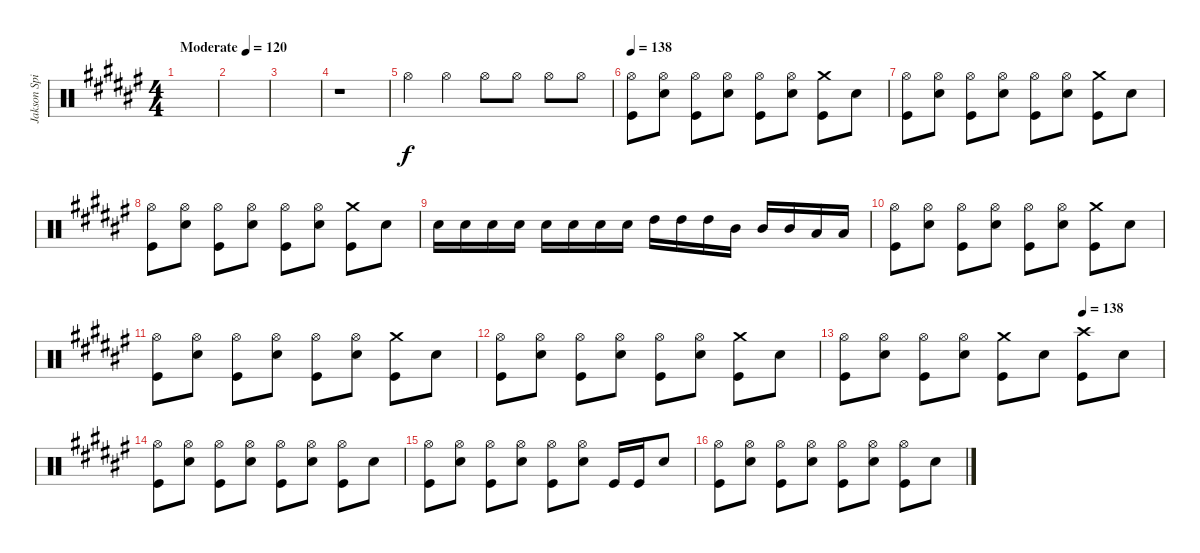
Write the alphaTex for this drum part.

\track ("Jakson Spires" "Jakson Spi") {instrument percussion}
\staff {score}
\articulation defaults
\ts (4 4)
\tempo (120 "Moderate")
\clef neutral
\ks f#
|
|
|
r.1 |
"Hi-Hat (open)".4 "Hi-Hat (open)".4 "Hi-Hat (open)".8 "Hi-Hat (open)".8 "Hi-Hat (open)".8 "Hi-Hat (open)".8 |
\tempo 138
("Hi-Hat (open)" "Kick (hit)").8 ("Hi-Hat (open)" "Snare (hit) 2").8 ("Hi-Hat (open)" "Kick (hit)").8 ("Hi-Hat (open)" "Snare (hit) 2").8 ("Hi-Hat (open)" "Kick (hit)").8 ("Hi-Hat (open)" "Snare (hit) 2").8 ("Crash medium (hit)" "Kick (hit)").8 "Snare (hit) 2".8 |
("Hi-Hat (open)" "Kick (hit)").8 ("Hi-Hat (open)" "Snare (hit) 2").8 ("Hi-Hat (open)" "Kick (hit)").8 ("Hi-Hat (open)" "Snare (hit) 2").8 ("Hi-Hat (open)" "Kick (hit)").8 ("Hi-Hat (open)" "Snare (hit) 2").8 ("Crash medium (hit)" "Kick (hit)").8 "Snare (hit) 2".8 |
("Hi-Hat (open)" "Kick (hit)").8 ("Hi-Hat (open)" "Snare (hit) 2").8 ("Hi-Hat (open)" "Kick (hit)").8 ("Hi-Hat (open)" "Snare (hit) 2").8 ("Hi-Hat (open)" "Kick (hit)").8 ("Hi-Hat (open)" "Snare (hit) 2").8 ("Crash medium (hit)" "Kick (hit)").8 "Snare (hit) 2".8 |
"Snare (hit) 2".16 "Snare (hit) 2".16 "Snare (hit) 2".16 "Snare (hit) 2".16 "Snare (hit) 2".16 "Snare (hit) 2".16 "Snare (hit) 2".16 "Snare (hit) 2".16 "High Tom (hit)".16 "High Tom (hit)".16 "High Tom (hit)".16 "Mid Tom (hit)".16 "Mid Tom (hit)".16 "Mid Tom (hit)".16 "Low Tom (hit)".16 "Low Tom (hit)".16 |
("Hi-Hat (open)" "Kick (hit)").8 ("Hi-Hat (open)" "Snare (hit) 2").8 ("Hi-Hat (open)" "Kick (hit)").8 ("Hi-Hat (open)" "Snare (hit) 2").8 ("Hi-Hat (open)" "Kick (hit)").8 ("Hi-Hat (open)" "Snare (hit) 2").8 ("Crash medium (hit)" "Kick (hit)").8 "Snare (hit) 2".8 |
("Hi-Hat (open)" "Kick (hit)").8 ("Hi-Hat (open)" "Snare (hit) 2").8 ("Hi-Hat (open)" "Kick (hit)").8 ("Hi-Hat (open)" "Snare (hit) 2").8 ("Hi-Hat (open)" "Kick (hit)").8 ("Hi-Hat (open)" "Snare (hit) 2").8 ("Crash medium (hit)" "Kick (hit)").8 "Snare (hit) 2".8 |
("Hi-Hat (open)" "Kick (hit)").8 ("Hi-Hat (open)" "Snare (hit) 2").8 ("Hi-Hat (open)" "Kick (hit)").8 ("Hi-Hat (open)" "Snare (hit) 2").8 ("Hi-Hat (open)" "Kick (hit)").8 ("Hi-Hat (open)" "Snare (hit) 2").8 ("Crash medium (hit)" "Kick (hit)").8 "Snare (hit) 2".8 |
\tempo (138 0.75)
("Hi-Hat (open)" "Kick (hit)").8 ("Hi-Hat (open)" "Snare (hit) 2").8 ("Hi-Hat (open)" "Kick (hit)").8 ("Hi-Hat (open)" "Snare (hit) 2").8 ("Crash medium (hit)" "Kick (hit)").8 "Snare (hit) 2".8 ("Crash high (hit)" "Kick (hit)").8 "Snare (hit) 2".8 |
("Hi-Hat (open)" "Kick (hit)").8 ("Hi-Hat (open)" "Snare (hit) 2").8 ("Hi-Hat (open)" "Kick (hit)").8 ("Hi-Hat (open)" "Snare (hit) 2").8 ("Hi-Hat (open)" "Kick (hit)").8 ("Hi-Hat (open)" "Snare (hit) 2").8 ("Hi-Hat (open)" "Kick (hit)").8 "Snare (hit) 2".8 |
("Hi-Hat (open)" "Kick (hit)").8 ("Hi-Hat (open)" "Snare (hit) 2").8 ("Hi-Hat (open)" "Kick (hit)").8 ("Hi-Hat (open)" "Snare (hit) 2").8 ("Hi-Hat (open)" "Kick (hit)").8 ("Hi-Hat (open)" "Snare (hit) 2").8 "Kick (hit)".16 "Kick (hit)".16 "Snare (hit) 2".8 |
("Hi-Hat (open)" "Kick (hit)").8 ("Hi-Hat (open)" "Snare (hit) 2").8 ("Hi-Hat (open)" "Kick (hit)").8 ("Hi-Hat (open)" "Snare (hit) 2").8 ("Hi-Hat (open)" "Kick (hit)").8 ("Hi-Hat (open)" "Snare (hit) 2").8 ("Hi-Hat (open)" "Kick (hit)").8 "Snare (hit) 2".8
